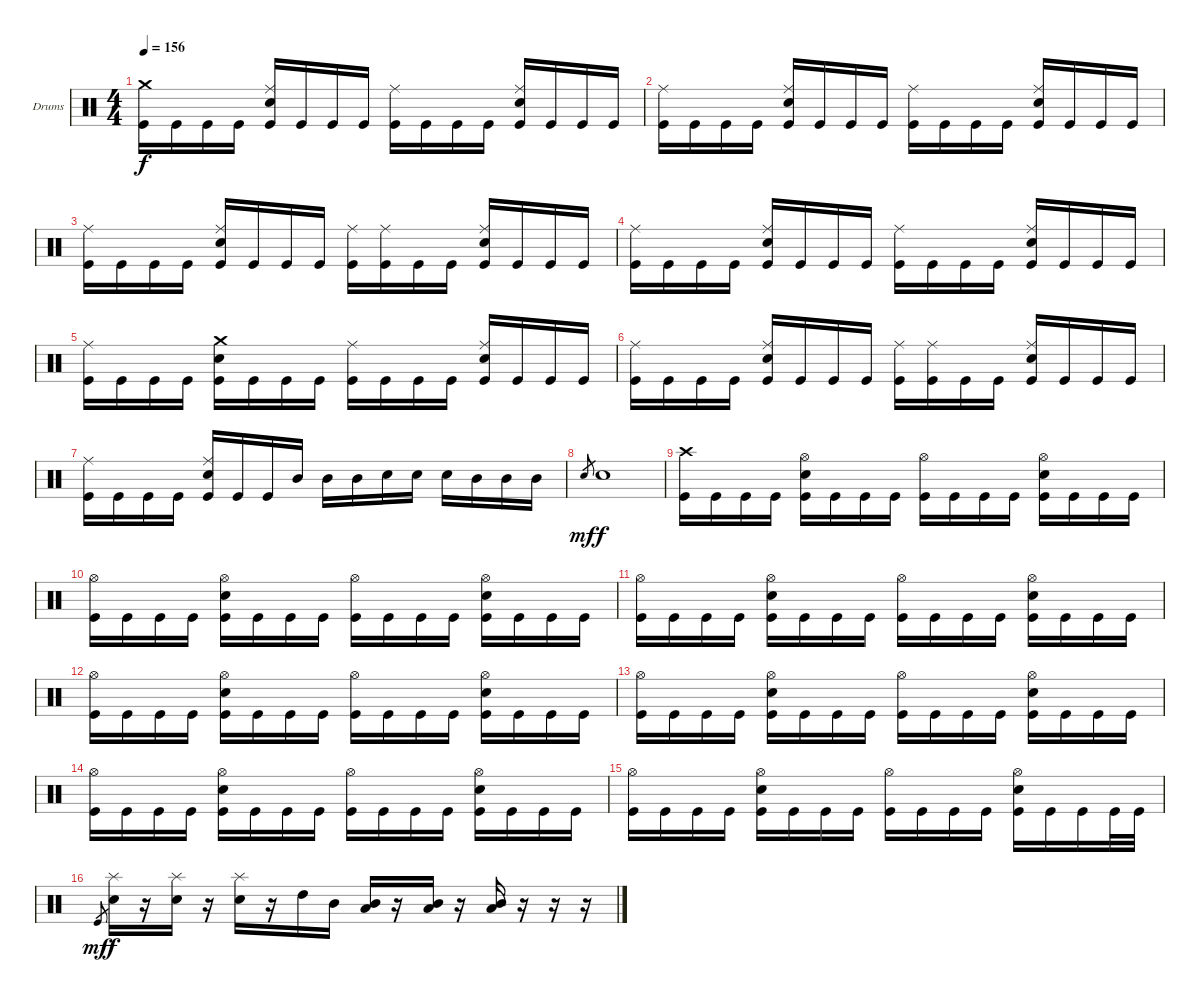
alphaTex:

\bracketExtendMode groupsimilarinstruments
\firstSystemTrackNameOrientation horizontal
\otherSystemsTrackNameOrientation horizontal
\track ("Drumkit" "Drums") {instrument percussion}
\staff {score}
\articulation defaults
\ts (4 4)
\tempo 156
\clef neutral
\ks c
("Crash medium (hit)" "Kick (hit)").16{dy f} "Kick (hit)".16 "Kick (hit)".16 "Kick (hit)".16 ("Ride (middle)" "Snare (hit) 2" "Kick (hit)").16 "Kick (hit)".16 "Kick (hit)".16 "Kick (hit)".16 ("Ride (middle)" "Kick (hit)").16 "Kick (hit)".16 "Kick (hit)".16 "Kick (hit)".16 ("Ride (middle)" "Snare (hit) 2" "Kick (hit)").16 "Kick (hit)".16 "Kick (hit)".16 "Kick (hit)".16 |
("Ride (middle)" "Kick (hit)").16 "Kick (hit)".16 "Kick (hit)".16 "Kick (hit)".16 ("Ride (middle)" "Snare (hit) 2" "Kick (hit)").16 "Kick (hit)".16 "Kick (hit)".16 "Kick (hit)".16 ("Ride (middle)" "Kick (hit)").16 "Kick (hit)".16 "Kick (hit)".16 "Kick (hit)".16 ("Ride (middle)" "Snare (hit) 2" "Kick (hit)").16 "Kick (hit)".16 "Kick (hit)".16 "Kick (hit)".16 |
("Ride (middle)" "Kick (hit)").16 "Kick (hit)".16 "Kick (hit)".16 "Kick (hit)".16 ("Ride (middle)" "Snare (hit) 2" "Kick (hit)").16 "Kick (hit)".16 "Kick (hit)".16 "Kick (hit)".16 ("Ride (middle)" "Kick (hit)").16 ("Ride (middle)" "Kick (hit)").16 "Kick (hit)".16 "Kick (hit)".16 ("Ride (middle)" "Snare (hit) 2" "Kick (hit)").16 "Kick (hit)".16 "Kick (hit)".16 "Kick (hit)".16 |
("Ride (middle)" "Kick (hit)").16 "Kick (hit)".16 "Kick (hit)".16 "Kick (hit)".16 ("Ride (middle)" "Snare (hit) 2" "Kick (hit)").16 "Kick (hit)".16 "Kick (hit)".16 "Kick (hit)".16 ("Ride (middle)" "Kick (hit)").16 "Kick (hit)".16 "Kick (hit)".16 "Kick (hit)".16 ("Ride (middle)" "Snare (hit) 2" "Kick (hit)").16 "Kick (hit)".16 "Kick (hit)".16 "Kick (hit)".16 |
("Ride (middle)" "Kick (hit)").16 "Kick (hit)".16 "Kick (hit)".16 "Kick (hit)".16 ("Crash medium (hit)" "Snare (hit) 2" "Kick (hit)").16 "Kick (hit)".16 "Kick (hit)".16 "Kick (hit)".16 ("Ride (middle)" "Kick (hit)").16 "Kick (hit)".16 "Kick (hit)".16 "Kick (hit)".16 ("Ride (middle)" "Snare (hit) 2" "Kick (hit)").16 "Kick (hit)".16 "Kick (hit)".16 "Kick (hit)".16 |
("Ride (middle)" "Kick (hit)").16 "Kick (hit)".16 "Kick (hit)".16 "Kick (hit)".16 ("Ride (middle)" "Snare (hit) 2" "Kick (hit)").16 "Kick (hit)".16 "Kick (hit)".16 "Kick (hit)".16 ("Ride (middle)" "Kick (hit)").16 ("Ride (middle)" "Kick (hit)").16 "Kick (hit)".16 "Kick (hit)".16 ("Ride (middle)" "Snare (hit) 2" "Kick (hit)").16 "Kick (hit)".16 "Kick (hit)".16 "Kick (hit)".16 |
("Ride (middle)" "Kick (hit)").16 "Kick (hit)".16 "Kick (hit)".16 "Kick (hit)".16 ("Ride (middle)" "Snare (hit) 2" "Kick (hit)").16 "Kick (hit)".16 "Kick (hit)".16 "Mid Tom (hit)".16 "Mid Tom (hit)".16 "Mid Tom (hit)".16 "Snare (hit) 2".16 "Snare (hit) 2".16 "Snare (hit) 2".16 "Mid Tom (hit)".16 "Mid Tom (hit)".16 "Mid Tom (hit)".16 |
"Snare (hit) 2".8{gr dy mf} "Snare (hit) 2".1{dy f} |
("Crash high (hit)" "Kick (hit)").16 "Kick (hit)".16 "Kick (hit)".16 "Kick (hit)".16 ("Hi-Hat (open)" "Snare (hit) 2" "Kick (hit)").16 "Kick (hit)".16 "Kick (hit)".16 "Kick (hit)".16 ("Hi-Hat (open)" "Kick (hit)").16 "Kick (hit)".16 "Kick (hit)".16 "Kick (hit)".16 ("Hi-Hat (open)" "Snare (hit) 2" "Kick (hit)").16 "Kick (hit)".16 "Kick (hit)".16 "Kick (hit)".16 |
("Hi-Hat (open)" "Kick (hit)").16 "Kick (hit)".16 "Kick (hit)".16 "Kick (hit)".16 ("Hi-Hat (open)" "Snare (hit) 2" "Kick (hit)").16 "Kick (hit)".16 "Kick (hit)".16 "Kick (hit)".16 ("Hi-Hat (open)" "Kick (hit)").16 "Kick (hit)".16 "Kick (hit)".16 "Kick (hit)".16 ("Hi-Hat (open)" "Snare (hit) 2" "Kick (hit)").16 "Kick (hit)".16 "Kick (hit)".16 "Kick (hit)".16 |
("Hi-Hat (open)" "Kick (hit)").16 "Kick (hit)".16 "Kick (hit)".16 "Kick (hit)".16 ("Hi-Hat (open)" "Snare (hit) 2" "Kick (hit)").16 "Kick (hit)".16 "Kick (hit)".16 "Kick (hit)".16 ("Hi-Hat (open)" "Kick (hit)").16 "Kick (hit)".16 "Kick (hit)".16 "Kick (hit)".16 ("Hi-Hat (open)" "Snare (hit) 2" "Kick (hit)").16 "Kick (hit)".16 "Kick (hit)".16 "Kick (hit)".16 |
("Hi-Hat (open)" "Kick (hit)").16 "Kick (hit)".16 "Kick (hit)".16 "Kick (hit)".16 ("Hi-Hat (open)" "Snare (hit) 2" "Kick (hit)").16 "Kick (hit)".16 "Kick (hit)".16 "Kick (hit)".16 ("Hi-Hat (open)" "Kick (hit)").16 "Kick (hit)".16 "Kick (hit)".16 "Kick (hit)".16 ("Hi-Hat (open)" "Snare (hit) 2" "Kick (hit)").16 "Kick (hit)".16 "Kick (hit)".16 "Kick (hit)".16 |
("Hi-Hat (open)" "Kick (hit)").16 "Kick (hit)".16 "Kick (hit)".16 "Kick (hit)".16 ("Hi-Hat (open)" "Snare (hit) 2" "Kick (hit)").16 "Kick (hit)".16 "Kick (hit)".16 "Kick (hit)".16 ("Hi-Hat (open)" "Kick (hit)").16 "Kick (hit)".16 "Kick (hit)".16 "Kick (hit)".16 ("Hi-Hat (open)" "Snare (hit) 2" "Kick (hit)").16 "Kick (hit)".16 "Kick (hit)".16 "Kick (hit)".16 |
("Hi-Hat (open)" "Kick (hit)").16 "Kick (hit)".16 "Kick (hit)".16 "Kick (hit)".16 ("Hi-Hat (open)" "Snare (hit) 2" "Kick (hit)").16 "Kick (hit)".16 "Kick (hit)".16 "Kick (hit)".16 ("Hi-Hat (open)" "Kick (hit)").16 "Kick (hit)".16 "Kick (hit)".16 "Kick (hit)".16 ("Hi-Hat (open)" "Snare (hit) 2" "Kick (hit)").16 "Kick (hit)".16 "Kick (hit)".16 "Kick (hit)".16 |
("Hi-Hat (open)" "Kick (hit)").16 "Kick (hit)".16 "Kick (hit)".16 "Kick (hit)".16 ("Hi-Hat (open)" "Snare (hit) 2" "Kick (hit)").16 "Kick (hit)".16 "Kick (hit)".16 "Kick (hit)".16 ("Hi-Hat (open)" "Kick (hit)").16 "Kick (hit)".16 "Kick (hit)".16 "Kick (hit)".16 ("Hi-Hat (open)" "Snare (hit) 2" "Kick (hit)").16 "Kick (hit)".16 "Kick (hit)".16 "Kick (hit)".32 "Kick (hit)".32 |
"Kick (hit)".8{gr dy mf} ("Splash (hit)" "Snare (hit) 2").16{dy f} r.16 ("Splash (hit)" "Snare (hit) 2").16 r.16 ("Splash (hit)" "Snare (hit) 2").16 r.16 "High Tom (hit)".16 "Mid Tom (hit)".16 ("Mid Tom (hit)" "Low Tom (hit)").16 r.16 ("Mid Tom (hit)" "Low Tom (hit)").16 r.16 ("Mid Tom (hit)" "Low Tom (hit)").16 r.16 r.16 r.16
